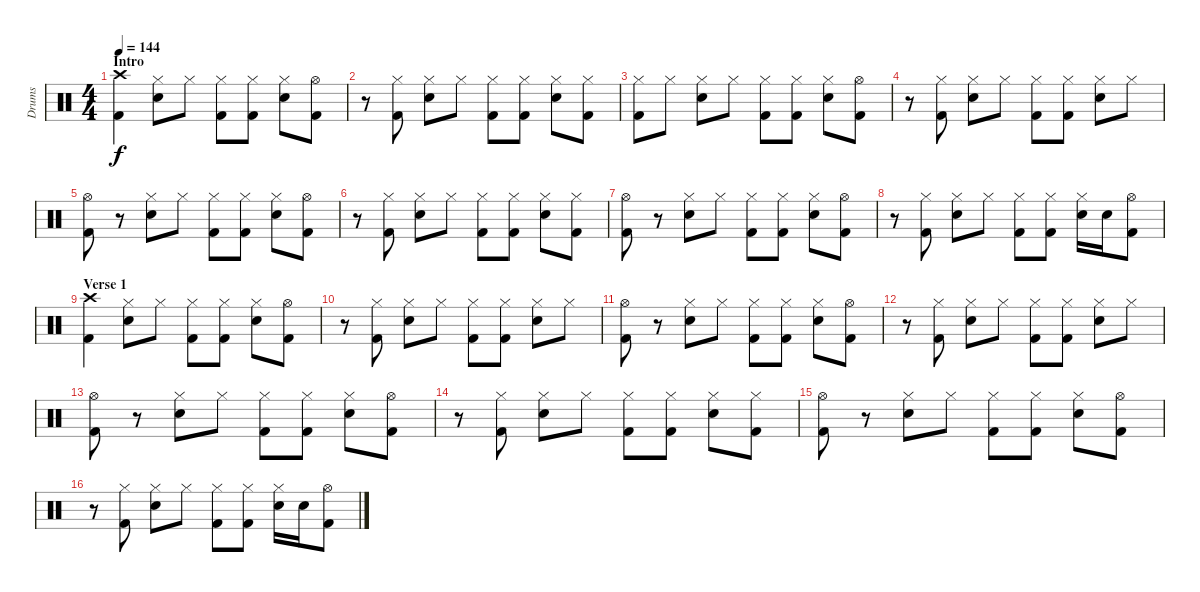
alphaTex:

\track ("Drums" "Drums") {instrument percussion}
\staff {score}
\articulation defaults
\ts (4 4)
\section ("" "Intro")
\tempo 144
\clef neutral
\ks c
("Crash high (hit)" "Kick (hit) 2").4{dy f} ("Hi-Hat (closed)" "Snare (hit) 2").8 "Hi-Hat (closed)".8 ("Hi-Hat (closed)" "Kick (hit) 2").8 ("Hi-Hat (closed)" "Kick (hit) 2").8 ("Hi-Hat (closed)" "Snare (hit) 2").8 ("Hi-Hat (open)" "Kick (hit) 2").8 |
r.8 ("Hi-Hat (closed)" "Kick (hit) 2").8 ("Hi-Hat (closed)" "Snare (hit) 2").8 "Hi-Hat (closed)".8 ("Hi-Hat (closed)" "Kick (hit) 2").8 ("Hi-Hat (closed)" "Kick (hit) 2").8 ("Hi-Hat (closed)" "Snare (hit) 2").8 ("Hi-Hat (closed)" "Kick (hit) 2").8 |
("Hi-Hat (closed)" "Kick (hit) 2").8 "Hi-Hat (closed)".8 ("Hi-Hat (closed)" "Snare (hit) 2").8 "Hi-Hat (closed)".8 ("Hi-Hat (closed)" "Kick (hit) 2").8 ("Hi-Hat (closed)" "Kick (hit) 2").8 ("Hi-Hat (closed)" "Snare (hit) 2").8 ("Hi-Hat (open)" "Kick (hit) 2").8 |
r.8 ("Hi-Hat (closed)" "Kick (hit) 2").8 ("Hi-Hat (closed)" "Snare (hit) 2").8 "Hi-Hat (closed)".8 ("Hi-Hat (closed)" "Kick (hit) 2").8 ("Hi-Hat (closed)" "Kick (hit) 2").8 ("Hi-Hat (closed)" "Snare (hit) 2").8 "Hi-Hat (closed)".8 |
("Hi-Hat (open)" "Kick (hit) 2").8 r.8 ("Hi-Hat (closed)" "Snare (hit) 2").8 "Hi-Hat (closed)".8 ("Hi-Hat (closed)" "Kick (hit) 2").8 ("Hi-Hat (closed)" "Kick (hit) 2").8 ("Hi-Hat (closed)" "Snare (hit) 2").8 ("Hi-Hat (open)" "Kick (hit) 2").8 |
r.8 ("Hi-Hat (closed)" "Kick (hit) 2").8 ("Hi-Hat (closed)" "Snare (hit) 2").8 "Hi-Hat (closed)".8 ("Hi-Hat (closed)" "Kick (hit) 2").8 ("Hi-Hat (closed)" "Kick (hit) 2").8 ("Hi-Hat (closed)" "Snare (hit) 2").8 ("Hi-Hat (closed)" "Kick (hit) 2").8 |
("Hi-Hat (open)" "Kick (hit) 2").8 r.8 ("Hi-Hat (closed)" "Snare (hit) 2").8 "Hi-Hat (closed)".8 ("Hi-Hat (closed)" "Kick (hit) 2").8 ("Hi-Hat (closed)" "Kick (hit) 2").8 ("Hi-Hat (closed)" "Snare (hit) 2").8 ("Hi-Hat (open)" "Kick (hit) 2").8 |
r.8 ("Hi-Hat (closed)" "Kick (hit) 2").8 ("Hi-Hat (closed)" "Snare (hit) 2").8 "Hi-Hat (closed)".8 ("Hi-Hat (closed)" "Kick (hit) 2").8 ("Hi-Hat (closed)" "Kick (hit) 2").8 ("Hi-Hat (closed)" "Snare (hit) 2").16 "Snare (hit) 2".16 ("Hi-Hat (open)" "Kick (hit) 2").8 |
\section ("" "Verse 1")
("Crash high (hit)" "Kick (hit) 2").4 ("Hi-Hat (closed)" "Snare (hit) 2").8 "Hi-Hat (closed)".8 ("Hi-Hat (closed)" "Kick (hit) 2").8 ("Hi-Hat (closed)" "Kick (hit) 2").8 ("Hi-Hat (closed)" "Snare (hit) 2").8 ("Hi-Hat (open)" "Kick (hit) 2").8 |
r.8 ("Hi-Hat (closed)" "Kick (hit) 2").8 ("Hi-Hat (closed)" "Snare (hit) 2").8 "Hi-Hat (closed)".8 ("Hi-Hat (closed)" "Kick (hit) 2").8 ("Hi-Hat (closed)" "Kick (hit) 2").8 ("Hi-Hat (closed)" "Snare (hit) 2").8 "Hi-Hat (closed)".8 |
("Hi-Hat (open)" "Kick (hit) 2").8 r.8 ("Hi-Hat (closed)" "Snare (hit) 2").8 "Hi-Hat (closed)".8 ("Hi-Hat (closed)" "Kick (hit) 2").8 ("Hi-Hat (closed)" "Kick (hit) 2").8 ("Hi-Hat (closed)" "Snare (hit) 2").8 ("Hi-Hat (open)" "Kick (hit) 2").8 |
r.8 ("Hi-Hat (closed)" "Kick (hit) 2").8 ("Hi-Hat (closed)" "Snare (hit) 2").8 "Hi-Hat (closed)".8 ("Hi-Hat (closed)" "Kick (hit) 2").8 ("Hi-Hat (closed)" "Kick (hit) 2").8 ("Hi-Hat (closed)" "Snare (hit) 2").8 "Hi-Hat (closed)".8 |
("Hi-Hat (open)" "Kick (hit) 2").8 r.8 ("Hi-Hat (closed)" "Snare (hit) 2").8 "Hi-Hat (closed)".8 ("Hi-Hat (closed)" "Kick (hit) 2").8 ("Hi-Hat (closed)" "Kick (hit) 2").8 ("Hi-Hat (closed)" "Snare (hit) 2").8 ("Hi-Hat (open)" "Kick (hit) 2").8 |
r.8 ("Hi-Hat (closed)" "Kick (hit) 2").8 ("Hi-Hat (closed)" "Snare (hit) 2").8 "Hi-Hat (closed)".8 ("Hi-Hat (closed)" "Kick (hit) 2").8 ("Hi-Hat (closed)" "Kick (hit) 2").8 ("Hi-Hat (closed)" "Snare (hit) 2").8 ("Hi-Hat (closed)" "Kick (hit) 2").8 |
("Hi-Hat (open)" "Kick (hit) 2").8 r.8 ("Hi-Hat (closed)" "Snare (hit) 2").8 "Hi-Hat (closed)".8 ("Hi-Hat (closed)" "Kick (hit) 2").8 ("Hi-Hat (closed)" "Kick (hit) 2").8 ("Hi-Hat (closed)" "Snare (hit) 2").8 ("Hi-Hat (open)" "Kick (hit) 2").8 |
r.8 ("Hi-Hat (closed)" "Kick (hit) 2").8 ("Hi-Hat (closed)" "Snare (hit) 2").8 "Hi-Hat (closed)".8 ("Hi-Hat (closed)" "Kick (hit) 2").8 ("Hi-Hat (closed)" "Kick (hit) 2").8 ("Hi-Hat (closed)" "Snare (hit) 2").16 "Snare (hit) 2".16 ("Hi-Hat (open)" "Kick (hit) 2").8
